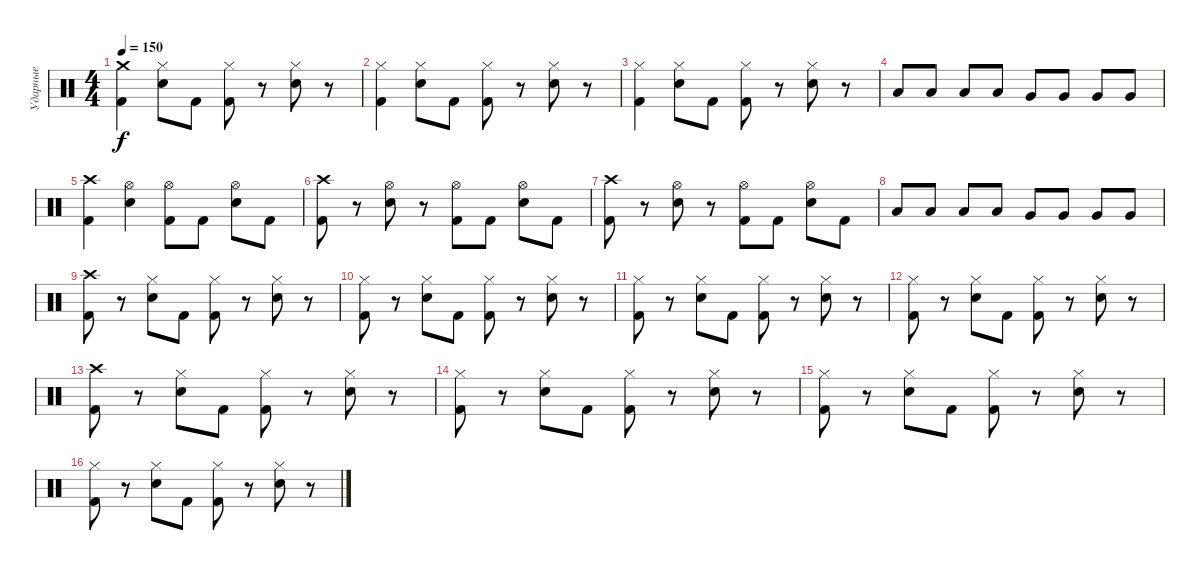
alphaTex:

\track ("Ударные" "Ударные") {instrument percussion}
\staff {score}
\articulation defaults
\ts (4 4)
\tempo 150
\clef neutral
\ks c
("Crash medium (hit)" "Kick (hit) 2").4{dy f} ("Hi-Hat (closed)" "Snare (hit) 2").8 "Kick (hit) 2".8 ("Hi-Hat (closed)" "Kick (hit) 2").8 r.8 ("Hi-Hat (closed)" "Snare (hit) 2").8 r.8 |
("Hi-Hat (closed)" "Kick (hit) 2").4 ("Hi-Hat (closed)" "Snare (hit) 2").8 "Kick (hit) 2".8 ("Hi-Hat (closed)" "Kick (hit) 2").8 r.8 ("Hi-Hat (closed)" "Snare (hit) 2").8 r.8 |
("Hi-Hat (closed)" "Kick (hit) 2").4 ("Hi-Hat (closed)" "Snare (hit) 2").8 "Kick (hit) 2".8 ("Hi-Hat (closed)" "Kick (hit) 2").8 r.8 ("Hi-Hat (closed)" "Snare (hit) 2").8 r.8 |
"Low Tom (hit)".8 "Low Tom (hit)".8 "Low Tom (hit)".8 "Low Tom (hit)".8 "Very Low Tom (hit)".8 "Very Low Tom (hit)".8 "Very Low Tom (hit)".8 "Very Low Tom (hit)".8 |
("Crash high (hit)" "Kick (hit) 2").4 ("Hi-Hat (open)" "Snare (hit) 2").4 ("Hi-Hat (open)" "Kick (hit) 2").8 "Kick (hit) 2".8 ("Hi-Hat (open)" "Snare (hit) 2").8 "Kick (hit) 2".8 |
("Crash high (hit)" "Kick (hit) 2").8 r.8 ("Hi-Hat (open)" "Snare (hit) 2").8 r.8 ("Hi-Hat (open)" "Kick (hit) 2").8 "Kick (hit) 2".8 ("Hi-Hat (open)" "Snare (hit) 2").8 "Kick (hit) 2".8 |
("Crash high (hit)" "Kick (hit) 2").8 r.8 ("Hi-Hat (open)" "Snare (hit) 2").8 r.8 ("Hi-Hat (open)" "Kick (hit) 2").8 "Kick (hit) 2".8 ("Hi-Hat (open)" "Snare (hit) 2").8 "Kick (hit) 2".8 |
"Low Tom (hit)".8 "Low Tom (hit)".8 "Low Tom (hit)".8 "Low Tom (hit)".8 "Very Low Tom (hit)".8 "Very Low Tom (hit)".8 "Very Low Tom (hit)".8 "Very Low Tom (hit)".8 |
("Kick (hit) 2" "Crash high (hit)").8 r.8 ("Hi-Hat (closed)" "Snare (hit) 2").8 "Kick (hit) 2".8 ("Hi-Hat (closed)" "Kick (hit) 2").8 r.8 ("Hi-Hat (closed)" "Snare (hit) 2").8 r.8 |
("Kick (hit) 2" "Hi-Hat (closed)").8 r.8 ("Snare (hit) 2" "Hi-Hat (closed)").8 "Kick (hit) 2".8 ("Kick (hit) 2" "Hi-Hat (closed)").8 r.8 ("Snare (hit) 2" "Hi-Hat (closed)").8 r.8 |
("Kick (hit) 2" "Hi-Hat (closed)").8 r.8 ("Snare (hit) 2" "Hi-Hat (closed)").8 "Kick (hit) 2".8 ("Kick (hit) 2" "Hi-Hat (closed)").8 r.8 ("Snare (hit) 2" "Hi-Hat (closed)").8 r.8 |
("Kick (hit) 2" "Hi-Hat (closed)").8 r.8 ("Snare (hit) 2" "Hi-Hat (closed)").8 "Kick (hit) 2".8 ("Kick (hit) 2" "Hi-Hat (closed)").8 r.8 ("Snare (hit) 2" "Hi-Hat (closed)").8 r.8 |
("Kick (hit) 2" "Crash high (hit)").8 r.8 ("Hi-Hat (closed)" "Snare (hit) 2").8 "Kick (hit) 2".8 ("Hi-Hat (closed)" "Kick (hit) 2").8 r.8 ("Hi-Hat (closed)" "Snare (hit) 2").8 r.8 |
("Kick (hit) 2" "Hi-Hat (closed)").8 r.8 ("Snare (hit) 2" "Hi-Hat (closed)").8 "Kick (hit) 2".8 ("Kick (hit) 2" "Hi-Hat (closed)").8 r.8 ("Snare (hit) 2" "Hi-Hat (closed)").8 r.8 |
("Kick (hit) 2" "Hi-Hat (closed)").8 r.8 ("Snare (hit) 2" "Hi-Hat (closed)").8 "Kick (hit) 2".8 ("Kick (hit) 2" "Hi-Hat (closed)").8 r.8 ("Snare (hit) 2" "Hi-Hat (closed)").8 r.8 |
("Kick (hit) 2" "Hi-Hat (closed)").8 r.8 ("Snare (hit) 2" "Hi-Hat (closed)").8 "Kick (hit) 2".8 ("Kick (hit) 2" "Hi-Hat (closed)").8 r.8 ("Snare (hit) 2" "Hi-Hat (closed)").8 r.8
